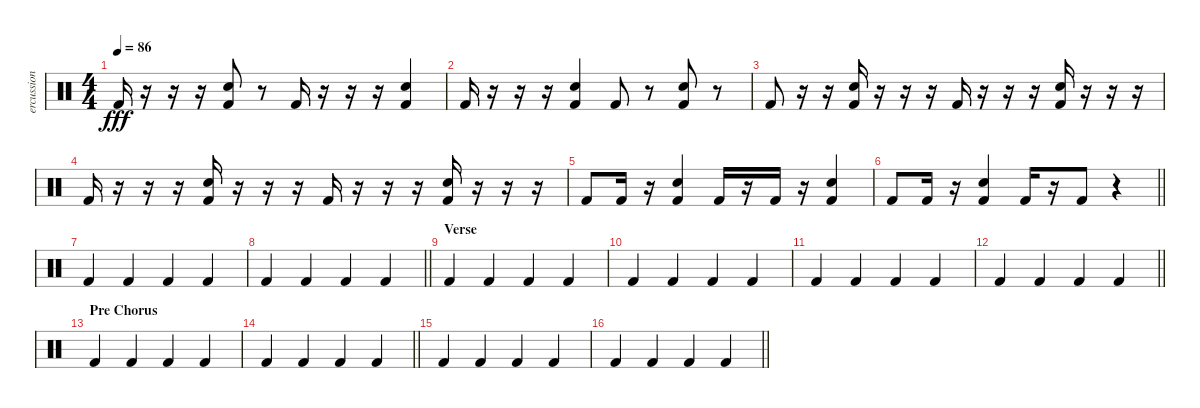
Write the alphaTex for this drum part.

\track ("ercussion" "ercussion") {instrument percussion}
\staff {score}
\articulation defaults
\ts (4 4)
\tempo 86
\clef neutral
\ks c "Kick (hit) 2".16{dy fff}
r.16 r.16 r.16 ("Snare (hit) 2" "Kick (hit) 2").8 r.8 "Kick (hit) 2".16 r.16 r.16 r.16 ("Snare (hit) 2" "Kick (hit) 2").4 |
"Kick (hit) 2".16 r.16 r.16 r.16 ("Snare (hit) 2" "Kick (hit) 2").4 "Kick (hit) 2".8 r.8 ("Snare (hit) 2" "Kick (hit) 2").8 r.8 |
"Kick (hit) 2".8 r.16 r.16 ("Snare (hit) 2" "Kick (hit) 2").16 r.16 r.16 r.16 "Kick (hit) 2".16 r.16 r.16 r.16 ("Snare (hit) 2" "Kick (hit) 2").16 r.16 r.16 r.16 |
"Kick (hit) 2".16 r.16 r.16 r.16 ("Snare (hit) 2" "Kick (hit) 2").16 r.16 r.16 r.16 "Kick (hit) 2".16 r.16 r.16 r.16 ("Snare (hit) 2" "Kick (hit) 2").16 r.16 r.16 r.16 |
"Kick (hit) 2".8 "Kick (hit) 2".16 r.16 ("Snare (hit) 2" "Kick (hit) 2").4 "Kick (hit) 2".16 r.16 "Kick (hit) 2".16 r.16 ("Snare (hit) 2" "Kick (hit) 2").4 |
\barLineRight lightlight "Kick (hit) 2".8 "Kick (hit) 2".16
r.16 ("Snare (hit) 2" "Kick (hit) 2").4 "Kick (hit) 2".16 r.16 "Kick (hit) 2".8 r.4 |
"Kick (hit) 2".4 "Kick (hit) 2".4 "Kick (hit) 2".4 "Kick (hit) 2".4 |
\barLineRight lightlight "Kick (hit) 2".4 "Kick (hit) 2".4 "Kick (hit) 2".4 "Kick (hit) 2".4
|
\section ("" "Verse")
"Kick (hit) 2".4 "Kick (hit) 2".4 "Kick (hit) 2".4 "Kick (hit) 2".4 |
"Kick (hit) 2".4 "Kick (hit) 2".4 "Kick (hit) 2".4 "Kick (hit) 2".4 |
"Kick (hit) 2".4 "Kick (hit) 2".4 "Kick (hit) 2".4 "Kick (hit) 2".4 |
\barLineRight lightlight "Kick (hit) 2".4 "Kick (hit) 2".4 "Kick (hit) 2".4 "Kick (hit) 2".4
|
\section ("" "Pre Chorus")
"Kick (hit) 2".4 "Kick (hit) 2".4 "Kick (hit) 2".4 "Kick (hit) 2".4 |
\barLineRight lightlight "Kick (hit) 2".4 "Kick (hit) 2".4 "Kick (hit) 2".4 "Kick (hit) 2".4
|
"Kick (hit) 2".4 "Kick (hit) 2".4 "Kick (hit) 2".4 "Kick (hit) 2".4 |
\barLineRight lightlight "Kick (hit) 2".4 "Kick (hit) 2".4 "Kick (hit) 2".4 "Kick (hit) 2".4
